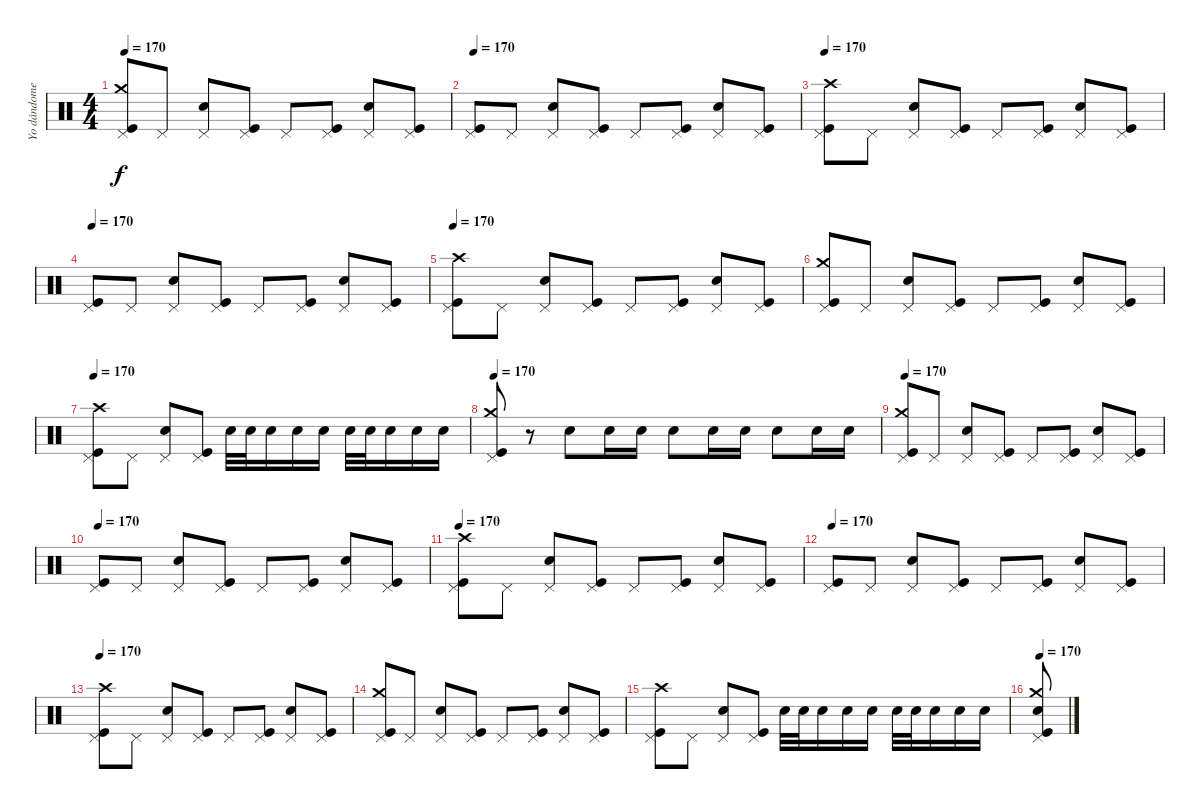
\track ("Yo dándomelas de batero." "Yo dándome") {instrument percussion}
\staff {score}
\articulation defaults
\ts (4 4)
\tempo 170
\clef neutral
\ks c
("Pedal Hi-Hat (hit)" "Crash medium (hit)" "Kick (hit)").8{dy f} "Pedal Hi-Hat (hit)".8 ("Pedal Hi-Hat (hit)" "Electric Snare (hit)").8 ("Pedal Hi-Hat (hit)" "Kick (hit)").8 "Pedal Hi-Hat (hit)".8 ("Pedal Hi-Hat (hit)" "Kick (hit)").8 ("Pedal Hi-Hat (hit)" "Electric Snare (hit)").8 ("Pedal Hi-Hat (hit)" "Kick (hit)").8 |
\tempo 170
("Pedal Hi-Hat (hit)" "Kick (hit)").8 "Pedal Hi-Hat (hit)".8 ("Pedal Hi-Hat (hit)" "Electric Snare (hit)").8 ("Pedal Hi-Hat (hit)" "Kick (hit)").8 "Pedal Hi-Hat (hit)".8 ("Pedal Hi-Hat (hit)" "Kick (hit)").8 ("Pedal Hi-Hat (hit)" "Electric Snare (hit)").8 ("Pedal Hi-Hat (hit)" "Kick (hit)").8 |
\tempo 170
("Pedal Hi-Hat (hit)" "Crash high (hit)" "Kick (hit)").8 "Pedal Hi-Hat (hit)".8 ("Pedal Hi-Hat (hit)" "Electric Snare (hit)").8 ("Pedal Hi-Hat (hit)" "Kick (hit)").8 "Pedal Hi-Hat (hit)".8 ("Pedal Hi-Hat (hit)" "Kick (hit)").8 ("Pedal Hi-Hat (hit)" "Electric Snare (hit)").8 ("Pedal Hi-Hat (hit)" "Kick (hit)").8 |
\tempo 170
("Pedal Hi-Hat (hit)" "Kick (hit)").8 "Pedal Hi-Hat (hit)".8 ("Pedal Hi-Hat (hit)" "Electric Snare (hit)").8 ("Pedal Hi-Hat (hit)" "Kick (hit)").8 "Pedal Hi-Hat (hit)".8 ("Pedal Hi-Hat (hit)" "Kick (hit)").8 ("Pedal Hi-Hat (hit)" "Electric Snare (hit)").8 ("Pedal Hi-Hat (hit)" "Kick (hit)").8 |
\tempo 170
("Pedal Hi-Hat (hit)" "Crash high (hit)" "Kick (hit)").8 "Pedal Hi-Hat (hit)".8 ("Pedal Hi-Hat (hit)" "Electric Snare (hit)").8 ("Pedal Hi-Hat (hit)" "Kick (hit)").8 "Pedal Hi-Hat (hit)".8 ("Pedal Hi-Hat (hit)" "Kick (hit)").8 ("Pedal Hi-Hat (hit)" "Electric Snare (hit)").8 ("Pedal Hi-Hat (hit)" "Kick (hit)").8 |
("Pedal Hi-Hat (hit)" "Crash medium (hit)" "Kick (hit)").8 "Pedal Hi-Hat (hit)".8 ("Pedal Hi-Hat (hit)" "Electric Snare (hit)").8 ("Pedal Hi-Hat (hit)" "Kick (hit)").8 "Pedal Hi-Hat (hit)".8 ("Pedal Hi-Hat (hit)" "Kick (hit)").8 ("Pedal Hi-Hat (hit)" "Electric Snare (hit)").8 ("Pedal Hi-Hat (hit)" "Kick (hit)").8 |
\tempo 170
("Pedal Hi-Hat (hit)" "Crash high (hit)" "Kick (hit)").8 "Pedal Hi-Hat (hit)".8 ("Pedal Hi-Hat (hit)" "Electric Snare (hit)").8 ("Pedal Hi-Hat (hit)" "Kick (hit)").8 "Electric Snare (hit)".32 "Electric Snare (hit)".32 "Electric Snare (hit)".16 "Electric Snare (hit)".16 "Electric Snare (hit)".16 "Electric Snare (hit)".32 "Electric Snare (hit)".32 "Electric Snare (hit)".16 "Electric Snare (hit)".16 "Electric Snare (hit)".16 |
\tempo 170
("Pedal Hi-Hat (hit)" "Crash medium (hit)" "Kick (hit)").8 r.8 "Electric Snare (hit)".8 "Electric Snare (hit)".16 "Electric Snare (hit)".16 "Electric Snare (hit)".8 "Electric Snare (hit)".16 "Electric Snare (hit)".16 "Electric Snare (hit)".8 "Electric Snare (hit)".16 "Electric Snare (hit)".16 |
\tempo 170
("Pedal Hi-Hat (hit)" "Crash medium (hit)" "Kick (hit)").8 "Pedal Hi-Hat (hit)".8 ("Pedal Hi-Hat (hit)" "Electric Snare (hit)").8 ("Pedal Hi-Hat (hit)" "Kick (hit)").8 "Pedal Hi-Hat (hit)".8 ("Pedal Hi-Hat (hit)" "Kick (hit)").8 ("Pedal Hi-Hat (hit)" "Electric Snare (hit)").8 ("Pedal Hi-Hat (hit)" "Kick (hit)").8 |
\tempo 170
("Pedal Hi-Hat (hit)" "Kick (hit)").8 "Pedal Hi-Hat (hit)".8 ("Pedal Hi-Hat (hit)" "Electric Snare (hit)").8 ("Pedal Hi-Hat (hit)" "Kick (hit)").8 "Pedal Hi-Hat (hit)".8 ("Pedal Hi-Hat (hit)" "Kick (hit)").8 ("Pedal Hi-Hat (hit)" "Electric Snare (hit)").8 ("Pedal Hi-Hat (hit)" "Kick (hit)").8 |
\tempo 170
("Pedal Hi-Hat (hit)" "Crash high (hit)" "Kick (hit)").8 "Pedal Hi-Hat (hit)".8 ("Pedal Hi-Hat (hit)" "Electric Snare (hit)").8 ("Pedal Hi-Hat (hit)" "Kick (hit)").8 "Pedal Hi-Hat (hit)".8 ("Pedal Hi-Hat (hit)" "Kick (hit)").8 ("Pedal Hi-Hat (hit)" "Electric Snare (hit)").8 ("Pedal Hi-Hat (hit)" "Kick (hit)").8 |
\tempo 170
("Pedal Hi-Hat (hit)" "Kick (hit)").8 "Pedal Hi-Hat (hit)".8 ("Pedal Hi-Hat (hit)" "Electric Snare (hit)").8 ("Pedal Hi-Hat (hit)" "Kick (hit)").8 "Pedal Hi-Hat (hit)".8 ("Pedal Hi-Hat (hit)" "Kick (hit)").8 ("Pedal Hi-Hat (hit)" "Electric Snare (hit)").8 ("Pedal Hi-Hat (hit)" "Kick (hit)").8 |
\tempo 170
("Pedal Hi-Hat (hit)" "Crash high (hit)" "Kick (hit)").8 "Pedal Hi-Hat (hit)".8 ("Pedal Hi-Hat (hit)" "Electric Snare (hit)").8 ("Pedal Hi-Hat (hit)" "Kick (hit)").8 "Pedal Hi-Hat (hit)".8 ("Pedal Hi-Hat (hit)" "Kick (hit)").8 ("Pedal Hi-Hat (hit)" "Electric Snare (hit)").8 ("Pedal Hi-Hat (hit)" "Kick (hit)").8 |
("Pedal Hi-Hat (hit)" "Crash medium (hit)" "Kick (hit)").8 "Pedal Hi-Hat (hit)".8 ("Pedal Hi-Hat (hit)" "Electric Snare (hit)").8 ("Pedal Hi-Hat (hit)" "Kick (hit)").8 "Pedal Hi-Hat (hit)".8 ("Pedal Hi-Hat (hit)" "Kick (hit)").8 ("Pedal Hi-Hat (hit)" "Electric Snare (hit)").8 ("Pedal Hi-Hat (hit)" "Kick (hit)").8 |
("Pedal Hi-Hat (hit)" "Crash high (hit)" "Kick (hit)").8 "Pedal Hi-Hat (hit)".8 ("Pedal Hi-Hat (hit)" "Electric Snare (hit)").8 ("Pedal Hi-Hat (hit)" "Kick (hit)").8 "Electric Snare (hit)".32 "Electric Snare (hit)".32 "Electric Snare (hit)".16 "Electric Snare (hit)".16 "Electric Snare (hit)".16 "Electric Snare (hit)".32 "Electric Snare (hit)".32 "Electric Snare (hit)".16 "Electric Snare (hit)".16 "Electric Snare (hit)".16 |
\tempo 170
("Pedal Hi-Hat (hit)" "Crash medium (hit)" "Electric Snare (hit)" "Kick (hit)").8
